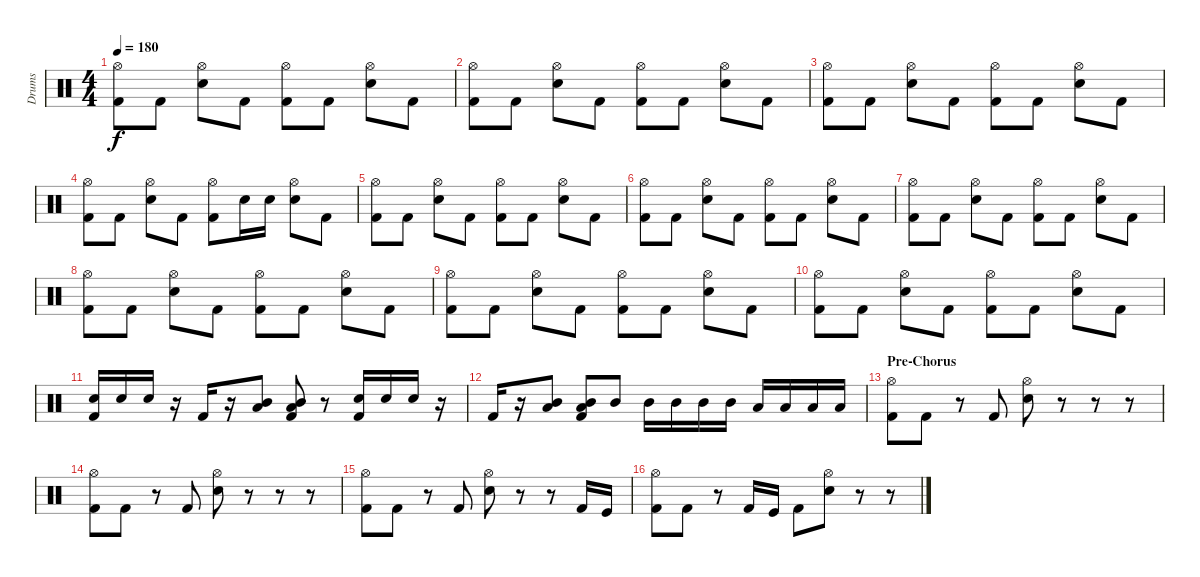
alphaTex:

\track ("Drums" "Drums") {instrument percussion}
\staff {score}
\articulation defaults
\ts (4 4)
\tempo 180
\clef neutral
\ks c
("Hi-Hat (open)" "Kick (hit) 2").8{dy f} "Kick (hit) 2".8 ("Hi-Hat (open)" "Electric Snare (hit)").8 "Kick (hit) 2".8 ("Hi-Hat (open)" "Kick (hit) 2").8 "Kick (hit) 2".8 ("Hi-Hat (open)" "Electric Snare (hit)").8 "Kick (hit) 2".8 |
("Hi-Hat (open)" "Kick (hit) 2").8 "Kick (hit) 2".8 ("Hi-Hat (open)" "Electric Snare (hit)").8 "Kick (hit) 2".8 ("Hi-Hat (open)" "Kick (hit) 2").8 "Kick (hit) 2".8 ("Hi-Hat (open)" "Electric Snare (hit)").8 "Kick (hit) 2".8 |
("Hi-Hat (open)" "Kick (hit) 2").8 "Kick (hit) 2".8 ("Hi-Hat (open)" "Electric Snare (hit)").8 "Kick (hit) 2".8 ("Hi-Hat (open)" "Kick (hit) 2").8 "Kick (hit) 2".8 ("Hi-Hat (open)" "Electric Snare (hit)").8 "Kick (hit) 2".8 |
("Hi-Hat (open)" "Kick (hit) 2").8 "Kick (hit) 2".8 ("Hi-Hat (open)" "Electric Snare (hit)").8 "Kick (hit) 2".8 ("Hi-Hat (open)" "Kick (hit) 2").8 "Electric Snare (hit)".16 "Electric Snare (hit)".16 ("Hi-Hat (open)" "Electric Snare (hit)").8 "Kick (hit) 2".8 |
("Hi-Hat (open)" "Kick (hit) 2").8 "Kick (hit) 2".8 ("Hi-Hat (open)" "Electric Snare (hit)").8 "Kick (hit) 2".8 ("Hi-Hat (open)" "Kick (hit) 2").8 "Kick (hit) 2".8 ("Hi-Hat (open)" "Electric Snare (hit)").8 "Kick (hit) 2".8 |
("Hi-Hat (open)" "Kick (hit) 2").8 "Kick (hit) 2".8 ("Hi-Hat (open)" "Electric Snare (hit)").8 "Kick (hit) 2".8 ("Hi-Hat (open)" "Kick (hit) 2").8 "Kick (hit) 2".8 ("Hi-Hat (open)" "Electric Snare (hit)").8 "Kick (hit) 2".8 |
("Hi-Hat (open)" "Kick (hit) 2").8 "Kick (hit) 2".8 ("Hi-Hat (open)" "Electric Snare (hit)").8 "Kick (hit) 2".8 ("Hi-Hat (open)" "Kick (hit) 2").8 "Kick (hit) 2".8 ("Hi-Hat (open)" "Electric Snare (hit)").8 "Kick (hit) 2".8 |
("Hi-Hat (open)" "Kick (hit) 2").8 "Kick (hit) 2".8 ("Hi-Hat (open)" "Electric Snare (hit)").8 "Kick (hit) 2".8 ("Hi-Hat (open)" "Kick (hit) 2").8 "Kick (hit) 2".8 ("Hi-Hat (open)" "Electric Snare (hit)").8 "Kick (hit) 2".8 |
("Hi-Hat (open)" "Kick (hit) 2").8 "Kick (hit) 2".8 ("Hi-Hat (open)" "Electric Snare (hit)").8 "Kick (hit) 2".8 ("Hi-Hat (open)" "Kick (hit) 2").8 "Kick (hit) 2".8 ("Hi-Hat (open)" "Electric Snare (hit)").8 "Kick (hit) 2".8 |
("Hi-Hat (open)" "Kick (hit) 2").8 "Kick (hit) 2".8 ("Hi-Hat (open)" "Electric Snare (hit)").8 "Kick (hit) 2".8 ("Hi-Hat (open)" "Kick (hit) 2").8 "Kick (hit) 2".8 ("Hi-Hat (open)" "Electric Snare (hit)").8 "Kick (hit) 2".8 |
("Electric Snare (hit)" "Kick (hit) 2").16 "Electric Snare (hit)".16 "Electric Snare (hit)".16 r.16 "Kick (hit) 2".16 r.16 ("Mid Tom (hit)" "Low Tom (hit)").8 ("Mid Tom (hit)" "Low Tom (hit)" "Kick (hit) 2").8 r.8 ("Electric Snare (hit)" "Kick (hit) 2").16 "Electric Snare (hit)".16 "Electric Snare (hit)".16 r.16 |
"Kick (hit) 2".16 r.16 ("Mid Tom (hit)" "Low Tom (hit)").8 ("Mid Tom (hit)" "Low Tom (hit)" "Kick (hit) 2").8 "Mid Tom (hit)".8 "Mid Tom (hit)".16 "Mid Tom (hit)".16 "Mid Tom (hit)".16 "Mid Tom (hit)".16 "Low Tom (hit)".16 "Low Tom (hit)".16 "Low Tom (hit)".16 "Low Tom (hit)".16 |
\section ("" "Pre-Chorus")
("Hi-Hat (open)" "Kick (hit) 2").8 "Kick (hit) 2".8 r.8 "Kick (hit) 2".8 ("Hi-Hat (open)" "Electric Snare (hit)").8 r.8 r.8 r.8 |
("Hi-Hat (open)" "Kick (hit) 2").8 "Kick (hit) 2".8 r.8 "Kick (hit) 2".8 ("Hi-Hat (open)" "Electric Snare (hit)").8 r.8 r.8 r.8 |
("Hi-Hat (open)" "Kick (hit) 2").8 "Kick (hit) 2".8 r.8 "Kick (hit) 2".8 ("Hi-Hat (open)" "Electric Snare (hit)").8 r.8 r.8 "Kick (hit) 2".16 "Kick (hit)".16 |
("Hi-Hat (open)" "Kick (hit) 2").8 "Kick (hit) 2".8 r.8 "Kick (hit) 2".16 "Kick (hit)".16 "Kick (hit) 2".8 ("Hi-Hat (open)" "Electric Snare (hit)").8 r.8 r.8
